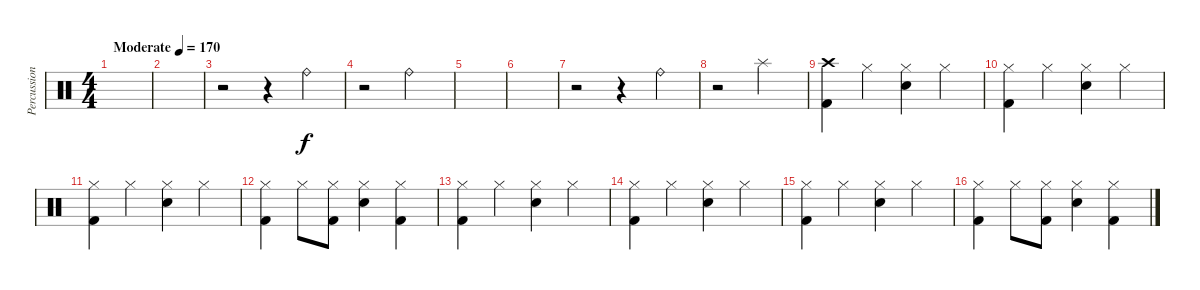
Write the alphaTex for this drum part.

\track ("Percussion" "Percussion") {instrument percussion}
\staff {score}
\articulation defaults
\ts (4 4)
\tempo (170 "Moderate")
\clef neutral
\ks c
|
|
r.2 r.4 "Ride (bell)".4 |
r.2 "Ride (bell)".2 |
|
|
r.2 r.4 "Ride (bell)".4 |
r.2 "Splash (hit)".2 |
("Crash high (hit)" "Kick (hit) 2").4 "Hi-Hat (closed)".4 ("Hi-Hat (closed)" "Snare (hit) 2").4 "Hi-Hat (closed)".4 |
("Hi-Hat (closed)" "Kick (hit) 2").4 "Hi-Hat (closed)".4 ("Hi-Hat (closed)" "Snare (hit) 2").4 "Hi-Hat (closed)".4 |
("Hi-Hat (closed)" "Kick (hit) 2").4 "Hi-Hat (closed)".4 ("Hi-Hat (closed)" "Snare (hit) 2").4 "Hi-Hat (closed)".4 |
("Hi-Hat (closed)" "Kick (hit) 2").4 "Hi-Hat (closed)".8 ("Hi-Hat (closed)" "Kick (hit) 2").8 ("Hi-Hat (closed)" "Snare (hit) 2").4 ("Hi-Hat (closed)" "Kick (hit) 2").4 |
("Hi-Hat (closed)" "Kick (hit) 2").4 "Hi-Hat (closed)".4 ("Hi-Hat (closed)" "Snare (hit) 2").4 "Hi-Hat (closed)".4 |
("Hi-Hat (closed)" "Kick (hit) 2").4 "Hi-Hat (closed)".4 ("Hi-Hat (closed)" "Snare (hit) 2").4 "Hi-Hat (closed)".4 |
("Hi-Hat (closed)" "Kick (hit) 2").4 "Hi-Hat (closed)".4 ("Hi-Hat (closed)" "Snare (hit) 2").4 "Hi-Hat (closed)".4 |
("Hi-Hat (closed)" "Kick (hit) 2").4 "Hi-Hat (closed)".8 ("Hi-Hat (closed)" "Kick (hit) 2").8 ("Hi-Hat (closed)" "Snare (hit) 2").4 ("Hi-Hat (closed)" "Kick (hit) 2").4
